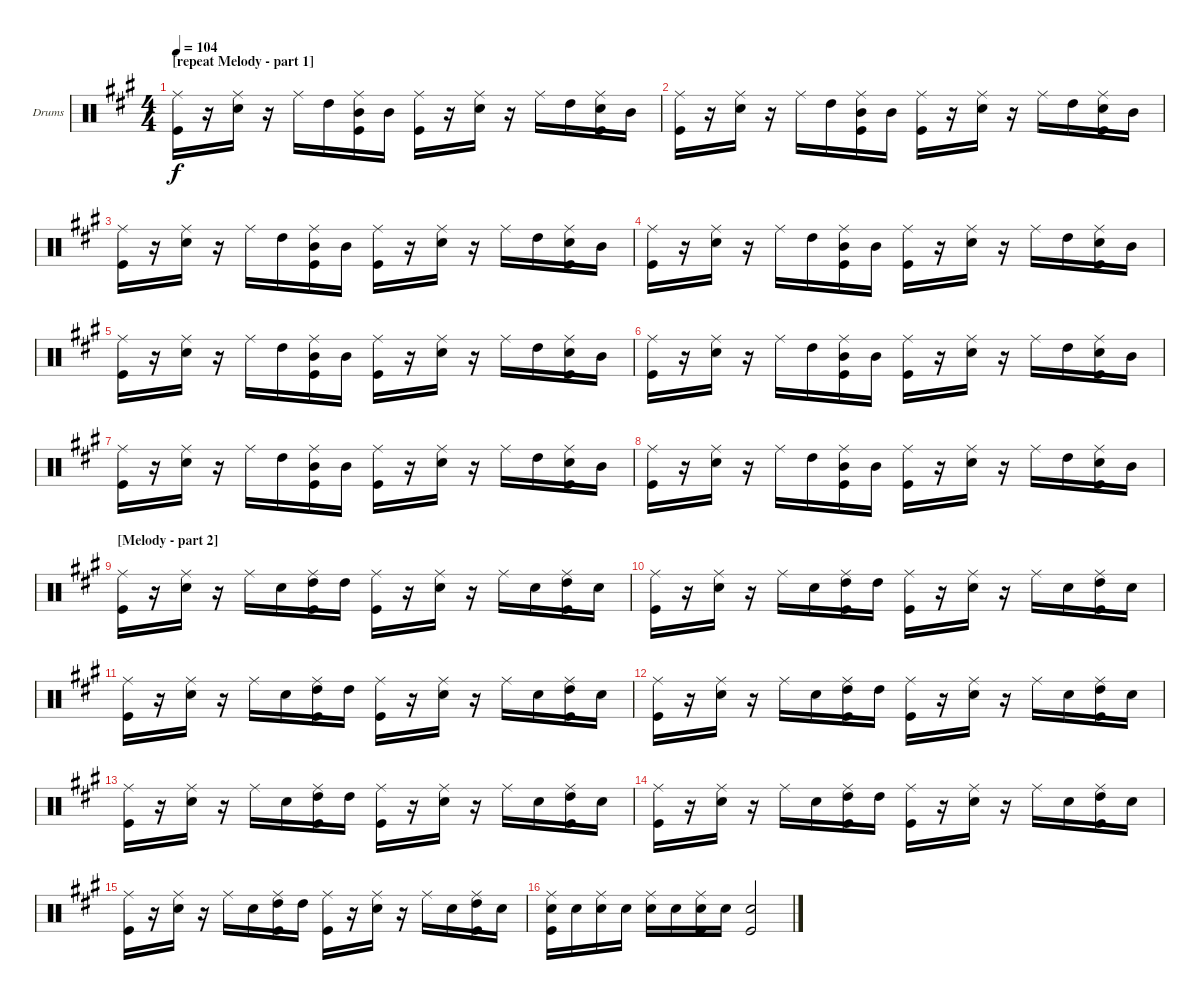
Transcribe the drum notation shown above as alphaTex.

\bracketExtendMode groupsimilarinstruments
\firstSystemTrackNameOrientation horizontal
\otherSystemsTrackNameOrientation horizontal
\track ("Drumkit" "Drums") {instrument percussion}
\staff {score}
\articulation defaults
\ts (4 4)
\section ("" "[repeat Melody - part 1]")
\tempo 104
\clef neutral
\ks a
("Ride (middle)" "Kick (hit)").16{dy f} r.16 ("Ride (middle)" "Snare (hit) 2").16 r.16 "Ride (middle)".16 "High Tom (hit)".16 ("Ride (middle)" "Mid Tom (hit)" "Kick (hit)").16 "Mid Tom (hit)".16 ("Ride (middle)" "Kick (hit)").16 r.16 ("Ride (middle)" "Snare (hit) 2").16 r.16 "Ride (middle)".16 "High Tom (hit)".16 ("Ride (middle)" "Snare (hit) 2" "Kick (hit)").16 "Mid Tom (hit)".16 |
("Ride (middle)" "Kick (hit)").16 r.16 ("Ride (middle)" "Snare (hit) 2").16 r.16 "Ride (middle)".16 "High Tom (hit)".16 ("Ride (middle)" "Mid Tom (hit)" "Kick (hit)").16 "Mid Tom (hit)".16 ("Ride (middle)" "Kick (hit)").16 r.16 ("Ride (middle)" "Snare (hit) 2").16 r.16 "Ride (middle)".16 "High Tom (hit)".16 ("Ride (middle)" "Snare (hit) 2" "Kick (hit)").16 "Mid Tom (hit)".16 |
("Ride (middle)" "Kick (hit)").16 r.16 ("Ride (middle)" "Snare (hit) 2").16 r.16 "Ride (middle)".16 "High Tom (hit)".16 ("Ride (middle)" "Mid Tom (hit)" "Kick (hit)").16 "Mid Tom (hit)".16 ("Ride (middle)" "Kick (hit)").16 r.16 ("Ride (middle)" "Snare (hit) 2").16 r.16 "Ride (middle)".16 "High Tom (hit)".16 ("Ride (middle)" "Snare (hit) 2" "Kick (hit)").16 "Mid Tom (hit)".16 |
("Ride (middle)" "Kick (hit)").16 r.16 ("Ride (middle)" "Snare (hit) 2").16 r.16 "Ride (middle)".16 "High Tom (hit)".16 ("Ride (middle)" "Mid Tom (hit)" "Kick (hit)").16 "Mid Tom (hit)".16 ("Ride (middle)" "Kick (hit)").16 r.16 ("Ride (middle)" "Snare (hit) 2").16 r.16 "Ride (middle)".16 "High Tom (hit)".16 ("Ride (middle)" "Snare (hit) 2" "Kick (hit)").16 "Mid Tom (hit)".16 |
("Ride (middle)" "Kick (hit)").16 r.16 ("Ride (middle)" "Snare (hit) 2").16 r.16 "Ride (middle)".16 "High Tom (hit)".16 ("Ride (middle)" "Mid Tom (hit)" "Kick (hit)").16 "Mid Tom (hit)".16 ("Ride (middle)" "Kick (hit)").16 r.16 ("Ride (middle)" "Snare (hit) 2").16 r.16 "Ride (middle)".16 "High Tom (hit)".16 ("Ride (middle)" "Snare (hit) 2" "Kick (hit)").16 "Mid Tom (hit)".16 |
("Ride (middle)" "Kick (hit)").16 r.16 ("Ride (middle)" "Snare (hit) 2").16 r.16 "Ride (middle)".16 "High Tom (hit)".16 ("Ride (middle)" "Mid Tom (hit)" "Kick (hit)").16 "Mid Tom (hit)".16 ("Ride (middle)" "Kick (hit)").16 r.16 ("Ride (middle)" "Snare (hit) 2").16 r.16 "Ride (middle)".16 "High Tom (hit)".16 ("Ride (middle)" "Snare (hit) 2" "Kick (hit)").16 "Mid Tom (hit)".16 |
("Ride (middle)" "Kick (hit)").16 r.16 ("Ride (middle)" "Snare (hit) 2").16 r.16 "Ride (middle)".16 "High Tom (hit)".16 ("Ride (middle)" "Mid Tom (hit)" "Kick (hit)").16 "Mid Tom (hit)".16 ("Ride (middle)" "Kick (hit)").16 r.16 ("Ride (middle)" "Snare (hit) 2").16 r.16 "Ride (middle)".16 "High Tom (hit)".16 ("Ride (middle)" "Snare (hit) 2" "Kick (hit)").16 "Mid Tom (hit)".16 |
("Ride (middle)" "Kick (hit)").16 r.16 ("Ride (middle)" "Snare (hit) 2").16 r.16 "Ride (middle)".16 "High Tom (hit)".16 ("Ride (middle)" "Mid Tom (hit)" "Kick (hit)").16 "Mid Tom (hit)".16 ("Ride (middle)" "Kick (hit)").16 r.16 ("Ride (middle)" "Snare (hit) 2").16 r.16 "Ride (middle)".16 "High Tom (hit)".16 ("Ride (middle)" "Snare (hit) 2" "Kick (hit)").16 "Mid Tom (hit)".16 |
\section ("" "[Melody - part 2]")
("Ride (middle)" "Kick (hit)").16 r.16 ("Ride (middle)" "Snare (hit) 2").16 r.16 "Ride (middle)".16 "Snare (hit) 2".16 ("Ride (middle)" "High Tom (hit)" "Kick (hit)").16 "High Tom (hit)".16 ("Ride (middle)" "Kick (hit)").16 r.16 ("Ride (middle)" "Snare (hit) 2").16 r.16 "Ride (middle)".16 "Snare (hit) 2".16 ("Ride (middle)" "High Tom (hit)" "Kick (hit)").16 "Snare (hit) 2".16 |
("Ride (middle)" "Kick (hit)").16 r.16 ("Ride (middle)" "Snare (hit) 2").16 r.16 "Ride (middle)".16 "Snare (hit) 2".16 ("Ride (middle)" "High Tom (hit)" "Kick (hit)").16 "High Tom (hit)".16 ("Ride (middle)" "Kick (hit)").16 r.16 ("Ride (middle)" "Snare (hit) 2").16 r.16 "Ride (middle)".16 "Snare (hit) 2".16 ("Ride (middle)" "High Tom (hit)" "Kick (hit)").16 "Snare (hit) 2".16 |
("Ride (middle)" "Kick (hit)").16 r.16 ("Ride (middle)" "Snare (hit) 2").16 r.16 "Ride (middle)".16 "Snare (hit) 2".16 ("Ride (middle)" "High Tom (hit)" "Kick (hit)").16 "High Tom (hit)".16 ("Ride (middle)" "Kick (hit)").16 r.16 ("Ride (middle)" "Snare (hit) 2").16 r.16 "Ride (middle)".16 "Snare (hit) 2".16 ("Ride (middle)" "High Tom (hit)" "Kick (hit)").16 "Snare (hit) 2".16 |
("Ride (middle)" "Kick (hit)").16 r.16 ("Ride (middle)" "Snare (hit) 2").16 r.16 "Ride (middle)".16 "Snare (hit) 2".16 ("Ride (middle)" "High Tom (hit)" "Kick (hit)").16 "High Tom (hit)".16 ("Ride (middle)" "Kick (hit)").16 r.16 ("Ride (middle)" "Snare (hit) 2").16 r.16 "Ride (middle)".16 "Snare (hit) 2".16 ("Ride (middle)" "High Tom (hit)" "Kick (hit)").16 "Snare (hit) 2".16 |
("Ride (middle)" "Kick (hit)").16 r.16 ("Ride (middle)" "Snare (hit) 2").16 r.16 "Ride (middle)".16 "Snare (hit) 2".16 ("Ride (middle)" "High Tom (hit)" "Kick (hit)").16 "High Tom (hit)".16 ("Ride (middle)" "Kick (hit)").16 r.16 ("Ride (middle)" "Snare (hit) 2").16 r.16 "Ride (middle)".16 "Snare (hit) 2".16 ("Ride (middle)" "High Tom (hit)" "Kick (hit)").16 "Snare (hit) 2".16 |
("Ride (middle)" "Kick (hit)").16 r.16 ("Ride (middle)" "Snare (hit) 2").16 r.16 "Ride (middle)".16 "Snare (hit) 2".16 ("Ride (middle)" "High Tom (hit)" "Kick (hit)").16 "High Tom (hit)".16 ("Ride (middle)" "Kick (hit)").16 r.16 ("Ride (middle)" "Snare (hit) 2").16 r.16 "Ride (middle)".16 "Snare (hit) 2".16 ("Ride (middle)" "High Tom (hit)" "Kick (hit)").16 "Snare (hit) 2".16 |
("Ride (middle)" "Kick (hit)").16 r.16 ("Ride (middle)" "Snare (hit) 2").16 r.16 "Ride (middle)".16 "Snare (hit) 2".16 ("Ride (middle)" "High Tom (hit)" "Kick (hit)").16 "High Tom (hit)".16 ("Ride (middle)" "Kick (hit)").16 r.16 ("Ride (middle)" "Snare (hit) 2").16 r.16 "Ride (middle)".16 "Snare (hit) 2".16 ("Ride (middle)" "High Tom (hit)" "Kick (hit)").16 "Snare (hit) 2".16 |
("Ride (middle)" "Snare (hit) 2" "Kick (hit)").16 "Snare (hit) 2".16 ("Ride (middle)" "Snare (hit) 2").16 "Snare (hit) 2".16 ("Ride (middle)" "Snare (hit) 2").16 "Snare (hit) 2".16 ("Ride (middle)" "Snare (hit) 2" "Kick (hit)").16 "Snare (hit) 2".16 ("Snare (hit) 2" "Kick (hit)").2
